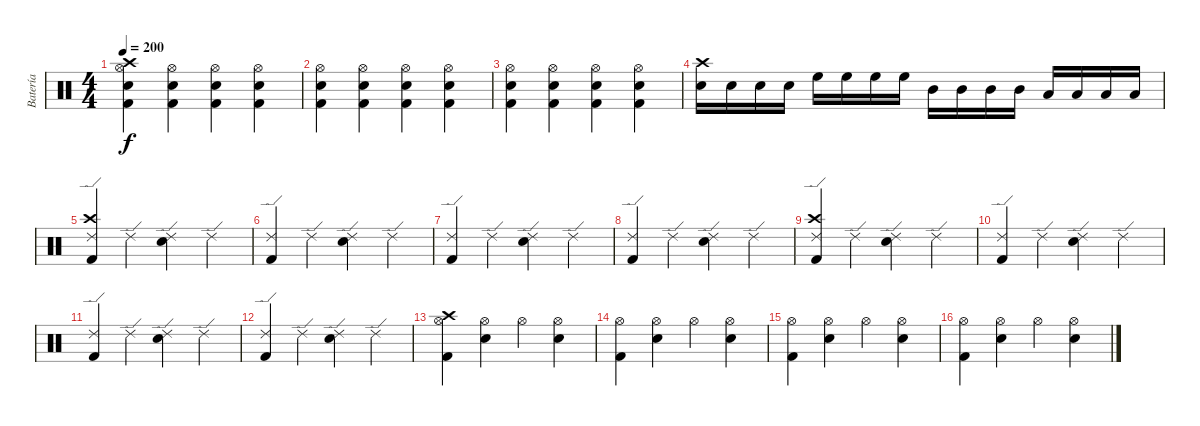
\track ("Batería" "Batería") {instrument percussion}
\staff {score}
\articulation defaults
\ts (4 4)
\tempo 200
\clef neutral
\ks c
("Electric Snare (hit)" "Kick (hit) 2" "Hi-Hat (open)" "Crash high (hit)").4{dy f} ("Electric Snare (hit)" "Kick (hit) 2" "Hi-Hat (open)").4 ("Electric Snare (hit)" "Kick (hit) 2" "Hi-Hat (open)").4 ("Electric Snare (hit)" "Kick (hit) 2" "Hi-Hat (open)").4 |
("Electric Snare (hit)" "Kick (hit) 2" "Hi-Hat (open)").4 ("Electric Snare (hit)" "Kick (hit) 2" "Hi-Hat (open)").4 ("Electric Snare (hit)" "Kick (hit) 2" "Hi-Hat (open)").4 ("Electric Snare (hit)" "Kick (hit) 2" "Hi-Hat (open)").4 |
("Electric Snare (hit)" "Kick (hit) 2" "Hi-Hat (open)").4 ("Electric Snare (hit)" "Kick (hit) 2" "Hi-Hat (open)").4 ("Electric Snare (hit)" "Kick (hit) 2" "Hi-Hat (open)").4 ("Electric Snare (hit)" "Kick (hit) 2" "Hi-Hat (open)").4 |
("Electric Snare (hit)" "Crash high (hit)").16 "Electric Snare (hit)".16 "Electric Snare (hit)".16 "Electric Snare (hit)".16 "High Floor Tom (hit)".16 "High Floor Tom (hit)".16 "High Floor Tom (hit)".16 "High Floor Tom (hit)".16 "Mid Tom (hit)".16 "Mid Tom (hit)".16 "Mid Tom (hit)".16 "Mid Tom (hit)".16 "Low Tom (hit)".16 "Low Tom (hit)".16 "Low Tom (hit)".16 "Low Tom (hit)".16 |
("Ride (edge) 2" "Kick (hit) 2" "Crash high (hit)").4 "Ride (edge) 2".4 ("Ride (edge) 2" "Electric Snare (hit)").4 "Ride (edge) 2".4 |
("Ride (edge) 2" "Kick (hit) 2").4 "Ride (edge) 2".4 ("Ride (edge) 2" "Electric Snare (hit)").4 "Ride (edge) 2".4 |
("Ride (edge) 2" "Kick (hit) 2").4 "Ride (edge) 2".4 ("Ride (edge) 2" "Electric Snare (hit)").4 "Ride (edge) 2".4 |
("Ride (edge) 2" "Kick (hit) 2").4 "Ride (edge) 2".4 ("Ride (edge) 2" "Electric Snare (hit)").4 "Ride (edge) 2".4 |
("Ride (edge) 2" "Kick (hit) 2" "Crash high (hit)").4 "Ride (edge) 2".4 ("Ride (edge) 2" "Electric Snare (hit)").4 "Ride (edge) 2".4 |
("Ride (edge) 2" "Kick (hit) 2").4 "Ride (edge) 2".4 ("Ride (edge) 2" "Electric Snare (hit)").4 "Ride (edge) 2".4 |
("Ride (edge) 2" "Kick (hit) 2").4 "Ride (edge) 2".4 ("Ride (edge) 2" "Electric Snare (hit)").4 "Ride (edge) 2".4 |
("Ride (edge) 2" "Kick (hit) 2").4 "Ride (edge) 2".4 ("Ride (edge) 2" "Electric Snare (hit)").4 "Ride (edge) 2".4 |
("Hi-Hat (open)" "Kick (hit) 2" "Crash high (hit)").4 ("Hi-Hat (open)" "Electric Snare (hit)").4 "Hi-Hat (open)".4 ("Hi-Hat (open)" "Electric Snare (hit)").4 |
("Hi-Hat (open)" "Kick (hit) 2").4 ("Hi-Hat (open)" "Electric Snare (hit)").4 "Hi-Hat (open)".4 ("Hi-Hat (open)" "Electric Snare (hit)").4 |
("Hi-Hat (open)" "Kick (hit) 2").4 ("Hi-Hat (open)" "Electric Snare (hit)").4 "Hi-Hat (open)".4 ("Hi-Hat (open)" "Electric Snare (hit)").4 |
("Hi-Hat (open)" "Kick (hit) 2").4 ("Hi-Hat (open)" "Electric Snare (hit)").4 "Hi-Hat (open)".4 ("Hi-Hat (open)" "Electric Snare (hit)").4
